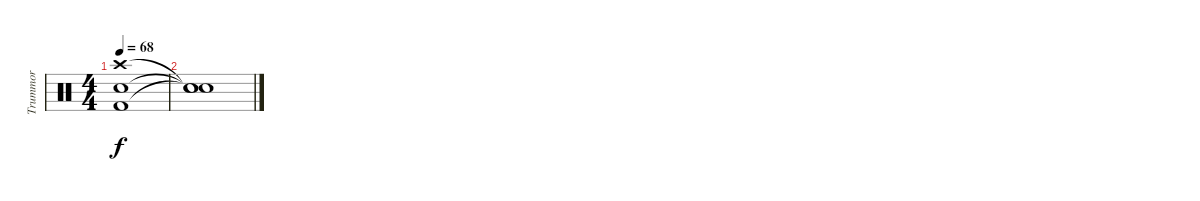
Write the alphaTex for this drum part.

\track ("Trummor" "Trummor") {instrument percussion}
\staff {score}
\articulation defaults
\ts (4 4)
\tempo 68
\clef neutral
\ks c
("Crash high (hit)" "Snare (hit) 2" "Kick (hit) 2").1{dy f} |
("Snare (hit)"{t} "Snare (hit)"{t} "Snare (hit)"{t}).1
